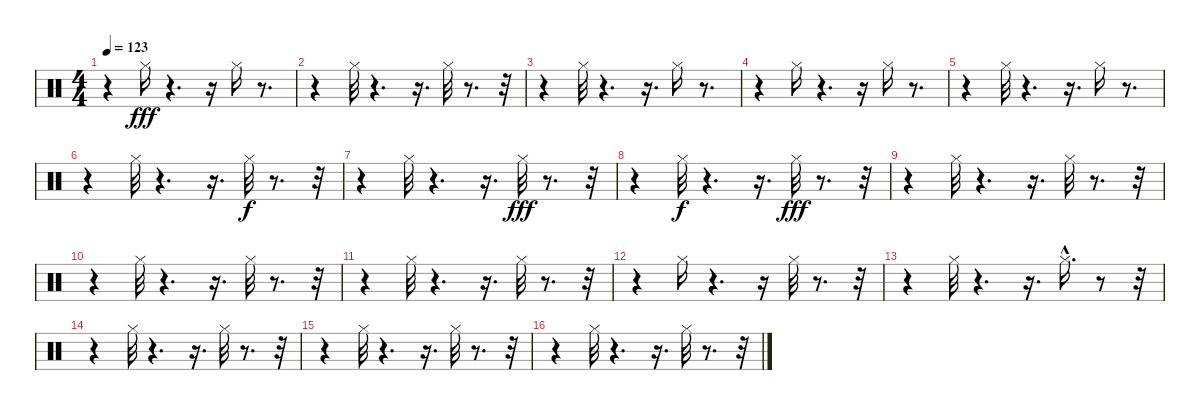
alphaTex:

\track "" {instrument percussion}
\staff {score}
\articulation defaults
\ts (4 4)
\tempo 123
\clef neutral
\ks c
r.4{dy fff} "Hi-Hat (closed)".16 r.4{d} r.16 "Hi-Hat (closed)".16 r.8{d} |
r.4 "Hi-Hat (closed)".32 r.4{d} r.16{d} "Hi-Hat (closed)".32 r.8{d} r.32 |
r.4 "Hi-Hat (closed)".32 r.4{d} r.16{d} "Hi-Hat (closed)".16 r.8{d} |
r.4 "Hi-Hat (closed)".16 r.4{d} r.16 "Hi-Hat (closed)".16 r.8{d} |
r.4 "Hi-Hat (closed)".32 r.4{d} r.16{d} "Hi-Hat (closed)".16 r.8{d} |
r.4 "Hi-Hat (closed)".32 r.4{d} r.16{d} "Hi-Hat (closed)".32{dy f} r.8{d} r.32 |
r.4 "Hi-Hat (closed)".32 r.4{d} r.16{d} "Hi-Hat (closed)".32{dy fff} r.8{d} r.32 |
r.4 "Hi-Hat (closed)".32{dy f} r.4{d} r.16{d} "Hi-Hat (closed)".32{dy fff} r.8{d} r.32 |
r.4 "Hi-Hat (closed)".32 r.4{d} r.16{d} "Hi-Hat (closed)".32 r.8{d} r.32 |
r.4 "Hi-Hat (closed)".32 r.4{d} r.16{d} "Hi-Hat (closed)".32 r.8{d} r.32 |
r.4 "Hi-Hat (closed)".32 r.4{d} r.16{d} "Hi-Hat (closed)".32 r.8{d} r.32 |
r.4 "Hi-Hat (closed)".16 r.4{d} r.16 "Hi-Hat (closed)".32 r.8{d} r.32 |
r.4 "Hi-Hat (closed)".32 r.4{d} r.16{d} "Hi-Hat (closed)"{hac}.16{d} r.8 r.32 |
r.4 "Hi-Hat (closed)".32 r.4{d} r.16{d} "Hi-Hat (closed)".32 r.8{d} r.32 |
r.4 "Hi-Hat (closed)".32 r.4{d} r.16{d} "Hi-Hat (closed)".32 r.8{d} r.32 |
r.4 "Hi-Hat (closed)".32 r.4{d} r.16{d} "Hi-Hat (closed)".32 r.8{d} r.32
